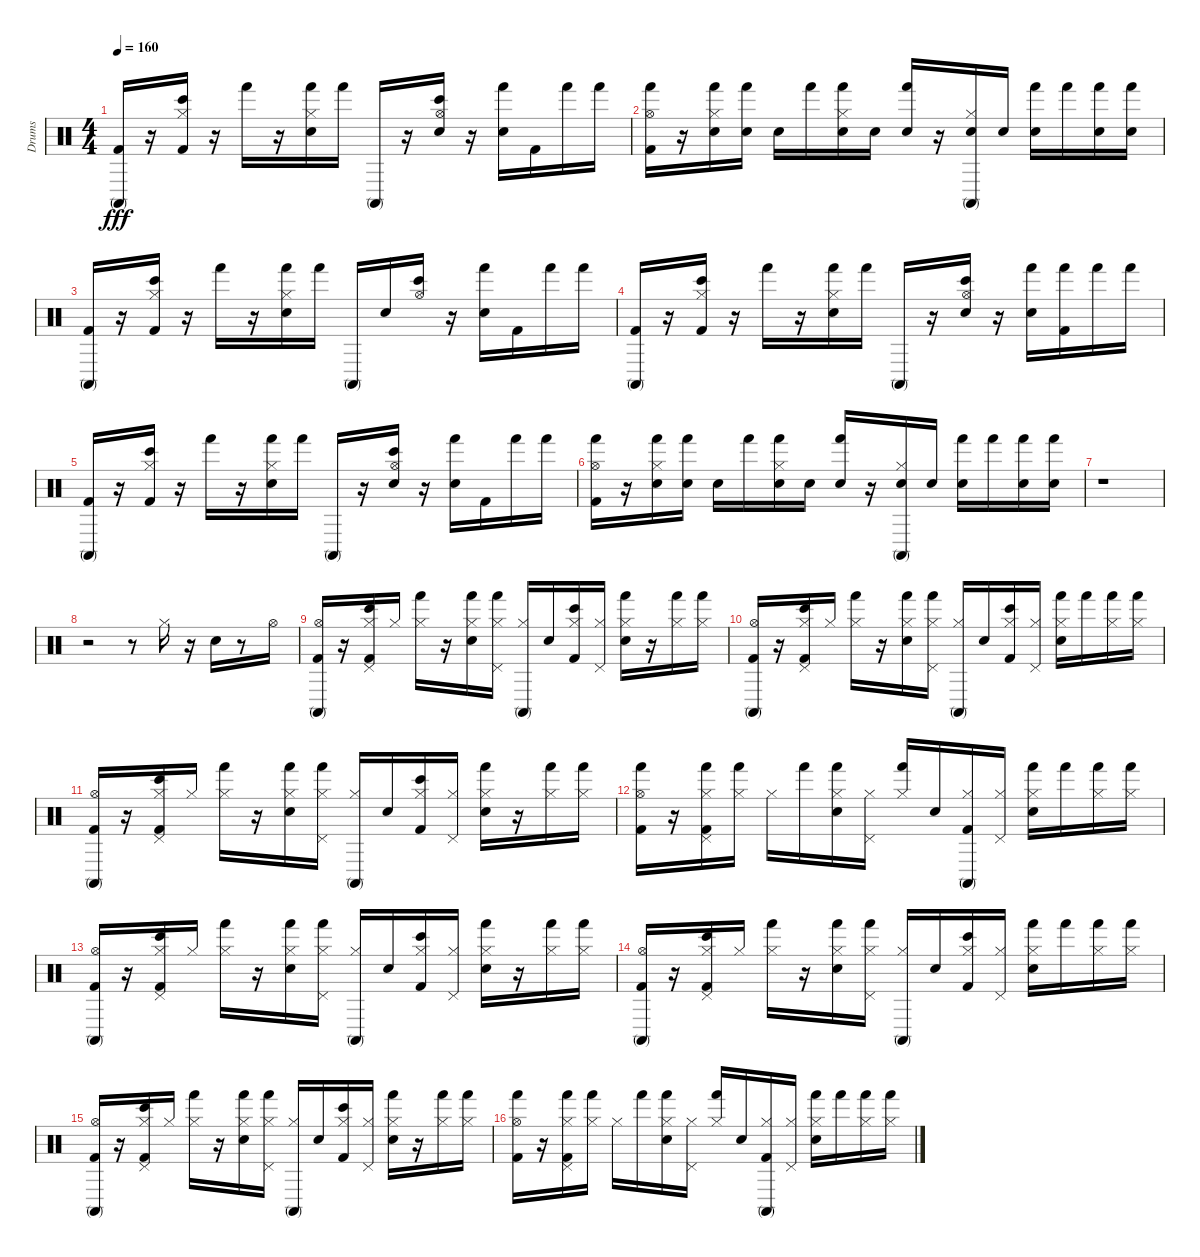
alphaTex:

\track ("Drums" "Drums") {instrument percussion}
\staff {score}
\articulation defaults
\ts (4 4)
\tempo 160
\clef neutral
\ks c
("Conga high (mute)" "Kick (hit) 2").16{dy fff} r.16 ("Kick (hit) 2" "Hi-Hat (closed)" "Bongo High (hit)").16 r.16 "Hand (hit)".16 r.16 ("Hi-Hat (closed)" "Electric Snare (hit)" "Hand (hit)").16 "Hand (hit)".16 "Conga high (mute)".16 r.16 ("Bongo High (hit)" "Hi-Hat (open)" "Electric Snare (hit)").16 r.16 ("Electric Snare (hit)" "Hand (hit)").16 "Kick (hit) 2".16 "Hand (hit)".16 "Hand (hit)".16 |
("Hand (hit)" "Hi-Hat (open)" "Kick (hit) 2").16 r.16 ("Hand (hit)" "Hi-Hat (closed)" "Electric Snare (hit)").16 ("Hand (hit)" "Electric Snare (hit)").16 "Electric Snare (hit)".16 "Hand (hit)".16 ("Hi-Hat (closed)" "Electric Snare (hit)" "Hand (hit)").16 "Electric Snare (hit)".16 ("Hand (hit)" "Electric Snare (hit)").16 r.16 ("Hi-Hat (closed)" "Electric Snare (hit)" "Conga high (mute)").16 "Electric Snare (hit)".16 ("Hand (hit)" "Electric Snare (hit)").16 "Hand (hit)".16 ("Electric Snare (hit)" "Hand (hit)").16 ("Electric Snare (hit)" "Hand (hit)").16 |
("Conga high (mute)" "Kick (hit) 2").16 r.16 ("Kick (hit) 2" "Bongo High (hit)" "Hi-Hat (closed)").16 r.16 "Hand (hit)".16 r.16 ("Hand (hit)" "Electric Snare (hit)" "Hi-Hat (closed)").16 "Hand (hit)".16 "Conga high (mute)".16 "Electric Snare (hit)".16 ("Bongo High (hit)" "Hi-Hat (open)").16 r.16 ("Electric Snare (hit)" "Hand (hit)").16 "Kick (hit) 2".16 "Hand (hit)".16 "Hand (hit)".16 |
("Kick (hit) 2" "Conga high (mute)").16 r.16 ("Bongo High (hit)" "Kick (hit) 2" "Hi-Hat (closed)").16 r.16 "Hand (hit)".16 r.16 ("Hi-Hat (closed)" "Hand (hit)" "Electric Snare (hit)").16 "Hand (hit)".16 "Conga high (mute)".16 r.16 ("Electric Snare (hit)" "Hi-Hat (open)" "Bongo High (hit)").16 r.16 ("Electric Snare (hit)" "Hand (hit)").16 ("Kick (hit) 2" "Hand (hit)").16 "Hand (hit)".16 "Hand (hit)".16 |
("Kick (hit) 2" "Conga high (mute)").16 r.16 ("Kick (hit) 2" "Hi-Hat (closed)" "Bongo High (hit)").16 r.16 "Hand (hit)".16 r.16 ("Electric Snare (hit)" "Hand (hit)" "Hi-Hat (closed)").16 "Hand (hit)".16 "Conga high (mute)".16 r.16 ("Electric Snare (hit)" "Hi-Hat (open)" "Bongo High (hit)").16 r.16 ("Electric Snare (hit)" "Hand (hit)").16 "Kick (hit) 2".16 "Hand (hit)".16 "Hand (hit)".16 |
("Kick (hit) 2" "Hand (hit)" "Hi-Hat (open)").16 r.16 ("Electric Snare (hit)" "Hi-Hat (closed)" "Hand (hit)").16 ("Electric Snare (hit)" "Hand (hit)").16 "Electric Snare (hit)".16 "Hand (hit)".16 ("Electric Snare (hit)" "Hand (hit)" "Hi-Hat (closed)").16 "Electric Snare (hit)".16 ("Electric Snare (hit)" "Hand (hit)").16 r.16 ("Hi-Hat (closed)" "Conga high (mute)" "Electric Snare (hit)").16 "Electric Snare (hit)".16 ("Electric Snare (hit)" "Hand (hit)").16 "Hand (hit)".16 ("Hand (hit)" "Electric Snare (hit)").16 ("Electric Snare (hit)" "Hand (hit)").16 |
r.1 |
r.2 r.8 "Hi-Hat (closed)".16 r.16 "Electric Snare (hit)".16 r.8 "Hi-Hat (open)".16 |
("Conga high (mute)" "Hi-Hat (open)" "Kick (hit) 2").16 r.16 ("Kick (hit) 2" "Pedal Hi-Hat (hit)" "Bongo High (hit)" "Hi-Hat (closed)").16 "Hi-Hat (closed)".16 ("Hand (hit)" "Hi-Hat (closed)").16 r.16 ("Hi-Hat (closed)" "Hand (hit)" "Electric Snare (hit)").16 ("Pedal Hi-Hat (hit)" "Hi-Hat (closed)" "Hand (hit)").16 ("Conga high (mute)" "Hi-Hat (closed)").16 "Electric Snare (hit)".16 ("Hi-Hat (closed)" "Kick (hit) 2" "Bongo High (hit)").16 ("Pedal Hi-Hat (hit)" "Hi-Hat (closed)").16 ("Hand (hit)" "Electric Snare (hit)" "Hi-Hat (closed)").16 r.16 ("Hi-Hat (closed)" "Hand (hit)").16 ("Hand (hit)" "Hi-Hat (closed)").16 |
("Hi-Hat (open)" "Conga high (mute)" "Kick (hit) 2").16 r.16 ("Hi-Hat (closed)" "Kick (hit) 2" "Bongo High (hit)" "Pedal Hi-Hat (hit)").16 "Hi-Hat (closed)".16 ("Hi-Hat (closed)" "Hand (hit)").16 r.16 ("Electric Snare (hit)" "Hand (hit)" "Hi-Hat (closed)").16 ("Hand (hit)" "Hi-Hat (closed)" "Pedal Hi-Hat (hit)").16 ("Hi-Hat (closed)" "Conga high (mute)").16 "Electric Snare (hit)".16 ("Hi-Hat (closed)" "Bongo High (hit)" "Kick (hit) 2").16 ("Hi-Hat (closed)" "Pedal Hi-Hat (hit)").16 ("Hand (hit)" "Hi-Hat (closed)" "Electric Snare (hit)").16 "Hand (hit)".16 ("Hi-Hat (closed)" "Hand (hit)").16 ("Hand (hit)" "Hi-Hat (closed)").16 |
("Hi-Hat (open)" "Kick (hit) 2" "Conga high (mute)").16 r.16 ("Hi-Hat (closed)" "Kick (hit) 2" "Pedal Hi-Hat (hit)" "Bongo High (hit)").16 "Hi-Hat (closed)".16 ("Hand (hit)" "Hi-Hat (closed)").16 r.16 ("Hand (hit)" "Hi-Hat (closed)" "Electric Snare (hit)").16 ("Hi-Hat (closed)" "Hand (hit)" "Pedal Hi-Hat (hit)").16 ("Hi-Hat (closed)" "Conga high (mute)").16 "Electric Snare (hit)".16 ("Hi-Hat (closed)" "Bongo High (hit)" "Kick (hit) 2").16 ("Hi-Hat (closed)" "Pedal Hi-Hat (hit)").16 ("Electric Snare (hit)" "Hi-Hat (closed)" "Hand (hit)").16 r.16 ("Hi-Hat (closed)" "Hand (hit)").16 ("Hi-Hat (closed)" "Hand (hit)").16 |
("Hi-Hat (open)" "Hand (hit)" "Kick (hit) 2").16 r.16 ("Hi-Hat (closed)" "Pedal Hi-Hat (hit)" "Hand (hit)" "Kick (hit) 2").16 ("Hand (hit)" "Hi-Hat (closed)").16 "Hi-Hat (closed)".16 "Hand (hit)".16 ("Hi-Hat (closed)" "Hand (hit)" "Electric Snare (hit)").16 ("Hi-Hat (closed)" "Pedal Hi-Hat (hit)").16 ("Hand (hit)" "Hi-Hat (closed)").16 "Electric Snare (hit)".16 ("Hi-Hat (closed)" "Kick (hit) 2" "Conga high (mute)").16 ("Hi-Hat (closed)" "Pedal Hi-Hat (hit)").16 ("Hi-Hat (closed)" "Hand (hit)" "Electric Snare (hit)").16 "Hand (hit)".16 ("Hand (hit)" "Hi-Hat (closed)").16 ("Hi-Hat (closed)" "Hand (hit)").16 |
("Hi-Hat (open)" "Conga high (mute)" "Kick (hit) 2").16 r.16 ("Kick (hit) 2" "Pedal Hi-Hat (hit)" "Bongo High (hit)" "Hi-Hat (closed)").16 "Hi-Hat (closed)".16 ("Hi-Hat (closed)" "Hand (hit)").16 r.16 ("Hand (hit)" "Electric Snare (hit)" "Hi-Hat (closed)").16 ("Pedal Hi-Hat (hit)" "Hi-Hat (closed)" "Hand (hit)").16 ("Conga high (mute)" "Hi-Hat (closed)").16 "Electric Snare (hit)".16 ("Bongo High (hit)" "Kick (hit) 2" "Hi-Hat (closed)").16 ("Pedal Hi-Hat (hit)" "Hi-Hat (closed)").16 ("Electric Snare (hit)" "Hand (hit)" "Hi-Hat (closed)").16 r.16 ("Hand (hit)" "Hi-Hat (closed)").16 ("Hi-Hat (closed)" "Hand (hit)").16 |
("Kick (hit) 2" "Conga high (mute)" "Hi-Hat (open)").16 r.16 ("Hi-Hat (closed)" "Kick (hit) 2" "Pedal Hi-Hat (hit)" "Bongo High (hit)").16 "Hi-Hat (closed)".16 ("Hand (hit)" "Hi-Hat (closed)").16 r.16 ("Electric Snare (hit)" "Hi-Hat (closed)" "Hand (hit)").16 ("Hi-Hat (closed)" "Pedal Hi-Hat (hit)" "Hand (hit)").16 ("Hi-Hat (closed)" "Conga high (mute)").16 "Electric Snare (hit)".16 ("Bongo High (hit)" "Kick (hit) 2" "Hi-Hat (closed)").16 ("Hi-Hat (closed)" "Pedal Hi-Hat (hit)").16 ("Hi-Hat (closed)" "Electric Snare (hit)" "Hand (hit)").16 "Hand (hit)".16 ("Hi-Hat (closed)" "Hand (hit)").16 ("Hand (hit)" "Hi-Hat (closed)").16 |
("Conga high (mute)" "Hi-Hat (open)" "Kick (hit) 2").16 r.16 ("Pedal Hi-Hat (hit)" "Bongo High (hit)" "Hi-Hat (closed)" "Kick (hit) 2").16 "Hi-Hat (closed)".16 ("Hi-Hat (closed)" "Hand (hit)").16 r.16 ("Electric Snare (hit)" "Hi-Hat (closed)" "Hand (hit)").16 ("Pedal Hi-Hat (hit)" "Hand (hit)" "Hi-Hat (closed)").16 ("Conga high (mute)" "Hi-Hat (closed)").16 "Electric Snare (hit)".16 ("Kick (hit) 2" "Hi-Hat (closed)" "Bongo High (hit)").16 ("Pedal Hi-Hat (hit)" "Hi-Hat (closed)").16 ("Hi-Hat (closed)" "Hand (hit)" "Electric Snare (hit)").16 r.16 ("Hand (hit)" "Hi-Hat (closed)").16 ("Hi-Hat (closed)" "Hand (hit)").16 |
("Hand (hit)" "Kick (hit) 2" "Hi-Hat (open)").16 r.16 ("Pedal Hi-Hat (hit)" "Hand (hit)" "Kick (hit) 2" "Hi-Hat (closed)").16 ("Hand (hit)" "Hi-Hat (closed)").16 "Hi-Hat (closed)".16 "Hand (hit)".16 ("Hand (hit)" "Hi-Hat (closed)" "Electric Snare (hit)").16 ("Pedal Hi-Hat (hit)" "Hi-Hat (closed)").16 ("Hi-Hat (closed)" "Hand (hit)").16 "Electric Snare (hit)".16 ("Conga high (mute)" "Hi-Hat (closed)" "Kick (hit) 2").16 ("Pedal Hi-Hat (hit)" "Hi-Hat (closed)").16 ("Hi-Hat (closed)" "Hand (hit)" "Electric Snare (hit)").16 "Hand (hit)".16 ("Hi-Hat (closed)" "Hand (hit)").16 ("Hand (hit)" "Hi-Hat (closed)").16
